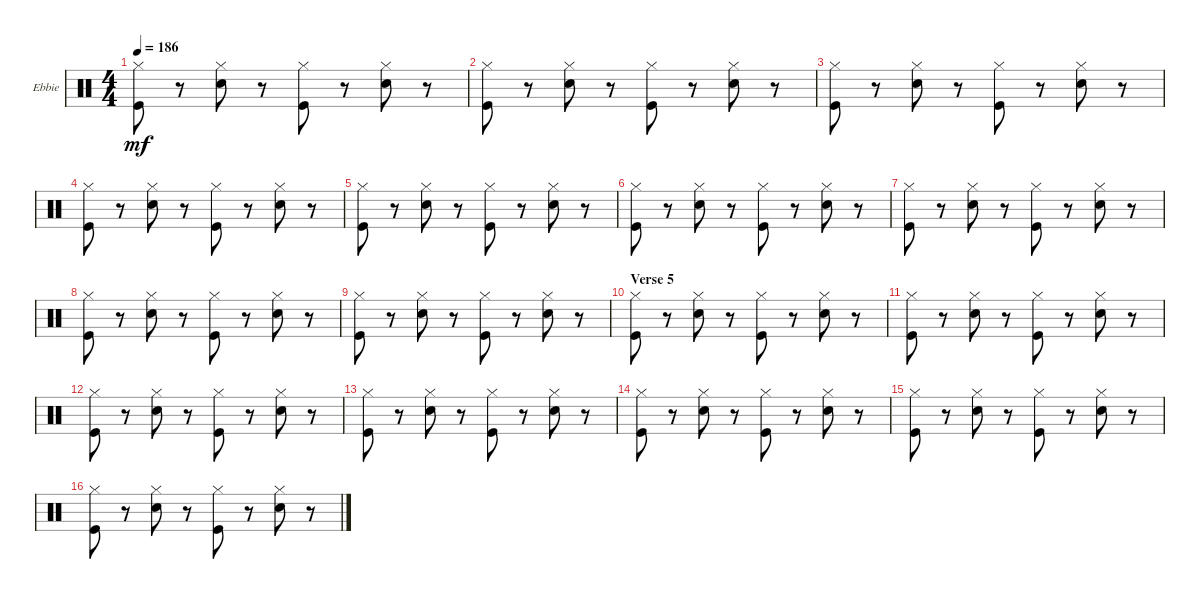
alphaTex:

\defaultSystemsLayout 4
\bracketExtendMode groupsimilarinstruments
\firstSystemTrackNameOrientation horizontal
\otherSystemsTrackNameOrientation horizontal
\track ("Ebbie Hardy" "Ebbie") {instrument percussion}
\staff {score}
\articulation defaults
\ts (4 4)
\tempo 186
\clef neutral
\scale
0.333333
\ks c
("Hi-Hat (closed)" "Kick (hit)").8{dy mf} r.8 ("Hi-Hat (closed)" "Snare (hit) 2").8 r.8 ("Hi-Hat (closed)" "Kick (hit)").8 r.8 ("Hi-Hat (closed)" "Snare (hit) 2").8 r.8 |
\scale
0.333333 ("Hi-Hat (closed)" "Kick (hit)").8 r.8 ("Hi-Hat (closed)" "Snare (hit) 2").8 r.8 ("Hi-Hat (closed)" "Kick (hit)").8 r.8 ("Hi-Hat (closed)" "Snare (hit) 2").8 r.8 |
\scale
0.333333 ("Hi-Hat (closed)" "Kick (hit)").8 r.8 ("Hi-Hat (closed)" "Snare (hit) 2").8 r.8 ("Hi-Hat (closed)" "Kick (hit)").8 r.8 ("Hi-Hat (closed)" "Snare (hit) 2").8 r.8 |
\scale
0.333333 ("Hi-Hat (closed)" "Kick (hit)").8 r.8 ("Hi-Hat (closed)" "Snare (hit) 2").8 r.8 ("Hi-Hat (closed)" "Kick (hit)").8 r.8 ("Hi-Hat (closed)" "Snare (hit) 2").8 r.8 |
\scale
0.333333 ("Hi-Hat (closed)" "Kick (hit)").8 r.8 ("Hi-Hat (closed)" "Snare (hit) 2").8 r.8 ("Hi-Hat (closed)" "Kick (hit)").8 r.8 ("Hi-Hat (closed)" "Snare (hit) 2").8 r.8 |
\scale
0.333333 ("Hi-Hat (closed)" "Kick (hit)").8 r.8 ("Hi-Hat (closed)" "Snare (hit) 2").8 r.8 ("Hi-Hat (closed)" "Kick (hit)").8 r.8 ("Hi-Hat (closed)" "Snare (hit) 2").8 r.8 |
\scale
0.333333 ("Hi-Hat (closed)" "Kick (hit)").8 r.8 ("Hi-Hat (closed)" "Snare (hit) 2").8 r.8 ("Hi-Hat (closed)" "Kick (hit)").8 r.8 ("Hi-Hat (closed)" "Snare (hit) 2").8 r.8 |
\scale
0.333333 ("Hi-Hat (closed)" "Kick (hit)").8 r.8 ("Hi-Hat (closed)" "Snare (hit) 2").8 r.8 ("Hi-Hat (closed)" "Kick (hit)").8 r.8 ("Hi-Hat (closed)" "Snare (hit) 2").8 r.8 |
\scale
0.333333 ("Hi-Hat (closed)" "Kick (hit)").8 r.8 ("Hi-Hat (closed)" "Snare (hit) 2").8 r.8 ("Hi-Hat (closed)" "Kick (hit)").8 r.8 ("Hi-Hat (closed)" "Snare (hit) 2").8 r.8 |
\section ("" "Verse 5")
\scale
0.333333 ("Hi-Hat (closed)" "Kick (hit)").8 r.8 ("Hi-Hat (closed)" "Snare (hit) 2").8 r.8 ("Hi-Hat (closed)" "Kick (hit)").8 r.8 ("Hi-Hat (closed)" "Snare (hit) 2").8 r.8 |
\scale
0.333333 ("Hi-Hat (closed)" "Kick (hit)").8 r.8 ("Hi-Hat (closed)" "Snare (hit) 2").8 r.8 ("Hi-Hat (closed)" "Kick (hit)").8 r.8 ("Hi-Hat (closed)" "Snare (hit) 2").8 r.8 |
\scale
0.333333 ("Hi-Hat (closed)" "Kick (hit)").8 r.8 ("Hi-Hat (closed)" "Snare (hit) 2").8 r.8 ("Hi-Hat (closed)" "Kick (hit)").8 r.8 ("Hi-Hat (closed)" "Snare (hit) 2").8 r.8 |
\scale
0.333333 ("Hi-Hat (closed)" "Kick (hit)").8 r.8 ("Hi-Hat (closed)" "Snare (hit) 2").8 r.8 ("Hi-Hat (closed)" "Kick (hit)").8 r.8 ("Hi-Hat (closed)" "Snare (hit) 2").8 r.8 |
\scale
0.333333 ("Hi-Hat (closed)" "Kick (hit)").8 r.8 ("Hi-Hat (closed)" "Snare (hit) 2").8 r.8 ("Hi-Hat (closed)" "Kick (hit)").8 r.8 ("Hi-Hat (closed)" "Snare (hit) 2").8 r.8 |
\scale
0.333333 ("Hi-Hat (closed)" "Kick (hit)").8 r.8 ("Hi-Hat (closed)" "Snare (hit) 2").8 r.8 ("Hi-Hat (closed)" "Kick (hit)").8 r.8 ("Hi-Hat (closed)" "Snare (hit) 2").8 r.8 |
\scale
0.333333 ("Hi-Hat (closed)" "Kick (hit)").8 r.8 ("Hi-Hat (closed)" "Snare (hit) 2").8 r.8 ("Hi-Hat (closed)" "Kick (hit)").8 r.8 ("Hi-Hat (closed)" "Snare (hit) 2").8 r.8
